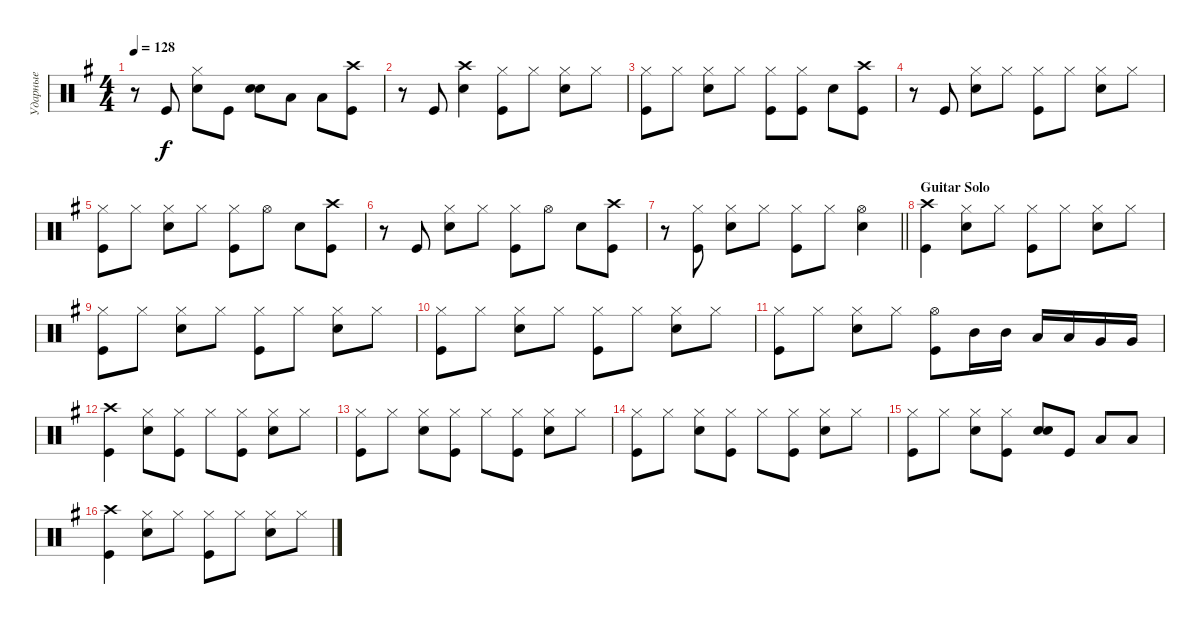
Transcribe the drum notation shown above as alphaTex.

\track ("Ударные" "Ударные") {instrument percussion}
\staff {score}
\articulation defaults
\ts (4 4)
\tempo 128
\clef neutral
\ks eminor
r.8{dy f} "Kick (hit)".8 ("Hi-Hat (closed)" "Snare (hit) 2").8 "Kick (hit)".8 ("Snare (hit) 2" "Snare (hit) 2").8{bd 240} "Low Tom (hit)".8 "Low Tom (hit)".8 ("Kick (hit)" "Crash high (hit)").8 |
r.8 "Kick (hit)".8 ("Crash high (hit)" "Snare (hit) 2").4 ("Hi-Hat (closed)" "Kick (hit)").8 "Hi-Hat (closed)".8 ("Hi-Hat (closed)" "Snare (hit) 2").8 "Hi-Hat (closed)".8 |
("Hi-Hat (closed)" "Kick (hit)").8 "Hi-Hat (closed)".8 ("Hi-Hat (closed)" "Snare (hit) 2").8 "Hi-Hat (closed)".8 ("Kick (hit)" "Hi-Hat (closed)").8 ("Hi-Hat (closed)" "Kick (hit)").8 "Snare (hit) 2".8 ("Kick (hit)" "Crash high (hit)").8 |
r.8 "Kick (hit)".8 ("Hi-Hat (closed)" "Snare (hit) 2").8 "Hi-Hat (closed)".8 ("Hi-Hat (closed)" "Kick (hit)").8 "Hi-Hat (closed)".8 ("Hi-Hat (closed)" "Snare (hit) 2").8 "Hi-Hat (closed)".8 |
("Hi-Hat (closed)" "Kick (hit)").8 "Hi-Hat (closed)".8 ("Hi-Hat (closed)" "Snare (hit) 2").8 "Hi-Hat (closed)".8 ("Kick (hit)" "Hi-Hat (closed)").8 "Hi-Hat (open)".8 "Snare (hit) 2".8 ("Kick (hit)" "Crash high (hit)").8 |
r.8 "Kick (hit)".8 ("Hi-Hat (closed)" "Snare (hit) 2").8 "Hi-Hat (closed)".8 ("Kick (hit)" "Hi-Hat (closed)").8 "Hi-Hat (open)".8 "Snare (hit) 2".8 ("Kick (hit)" "Crash high (hit)").8 |
\barLineRight lightlight
r.8 ("Kick (hit)" "Hi-Hat (closed)").8 ("Hi-Hat (closed)" "Snare (hit) 2").8 "Hi-Hat (closed)".8 ("Hi-Hat (closed)" "Kick (hit)").8 "Hi-Hat (closed)".8 ("Hi-Hat (open)" "Snare (hit) 2").4 |
\section ("" "Guitar Solo")
("Kick (hit)" "Crash high (hit)").4 ("Hi-Hat (closed)" "Snare (hit) 2").8 "Hi-Hat (closed)".8 ("Hi-Hat (closed)" "Kick (hit)").8 "Hi-Hat (closed)".8 ("Hi-Hat (closed)" "Snare (hit) 2").8 "Hi-Hat (closed)".8 |
("Hi-Hat (closed)" "Kick (hit)").8 "Hi-Hat (closed)".8 ("Hi-Hat (closed)" "Snare (hit) 2").8 "Hi-Hat (closed)".8 ("Hi-Hat (closed)" "Kick (hit)").8 "Hi-Hat (closed)".8 ("Hi-Hat (closed)" "Snare (hit) 2").8 "Hi-Hat (closed)".8 |
("Hi-Hat (closed)" "Kick (hit)").8 "Hi-Hat (closed)".8 ("Hi-Hat (closed)" "Snare (hit) 2").8 "Hi-Hat (closed)".8 ("Hi-Hat (closed)" "Kick (hit)").8 "Hi-Hat (closed)".8 ("Hi-Hat (closed)" "Snare (hit) 2").8 "Hi-Hat (closed)".8 |
("Hi-Hat (closed)" "Kick (hit)").8 "Hi-Hat (closed)".8 ("Hi-Hat (closed)" "Snare (hit) 2").8 "Hi-Hat (closed)".8 ("Kick (hit)" "Hi-Hat (open)").8 "Mid Tom (hit)".16 "Mid Tom (hit)".16 "Low Tom (hit)".16 "Low Tom (hit)".16 "Very Low Tom (hit)".16 "Very Low Tom (hit)".16 |
("Crash high (hit)" "Kick (hit)").4 ("Snare (hit) 2" "Hi-Hat (closed)").8 ("Hi-Hat (closed)" "Kick (hit)").8 "Hi-Hat (closed)".8 ("Hi-Hat (closed)" "Kick (hit)").8 ("Hi-Hat (closed)" "Snare (hit) 2").8 "Hi-Hat (closed)".8 |
("Hi-Hat (closed)" "Kick (hit)").8 "Hi-Hat (closed)".8 ("Hi-Hat (closed)" "Snare (hit) 2").8 ("Hi-Hat (closed)" "Kick (hit)").8 "Hi-Hat (closed)".8 ("Hi-Hat (closed)" "Kick (hit)").8 ("Hi-Hat (closed)" "Snare (hit) 2").8 "Hi-Hat (closed)".8 |
("Hi-Hat (closed)" "Kick (hit)").8 "Hi-Hat (closed)".8 ("Hi-Hat (closed)" "Snare (hit) 2").8 ("Hi-Hat (closed)" "Kick (hit)").8 "Hi-Hat (closed)".8 ("Hi-Hat (closed)" "Kick (hit)").8 ("Hi-Hat (closed)" "Snare (hit) 2").8 "Hi-Hat (closed)".8 |
("Hi-Hat (closed)" "Kick (hit)").8 "Hi-Hat (closed)".8 ("Hi-Hat (closed)" "Snare (hit) 2").8 ("Hi-Hat (closed)" "Kick (hit)").8 ("Snare (hit) 2" "Snare (hit) 2").8{bd 240} "Kick (hit)".8 "Low Tom (hit)".8 "Low Tom (hit)".8 |
("Kick (hit)" "Crash high (hit)").4 ("Hi-Hat (closed)" "Snare (hit) 2").8 "Hi-Hat (closed)".8 ("Hi-Hat (closed)" "Kick (hit)").8 "Hi-Hat (closed)".8 ("Hi-Hat (closed)" "Snare (hit) 2").8 "Hi-Hat (closed)".8
